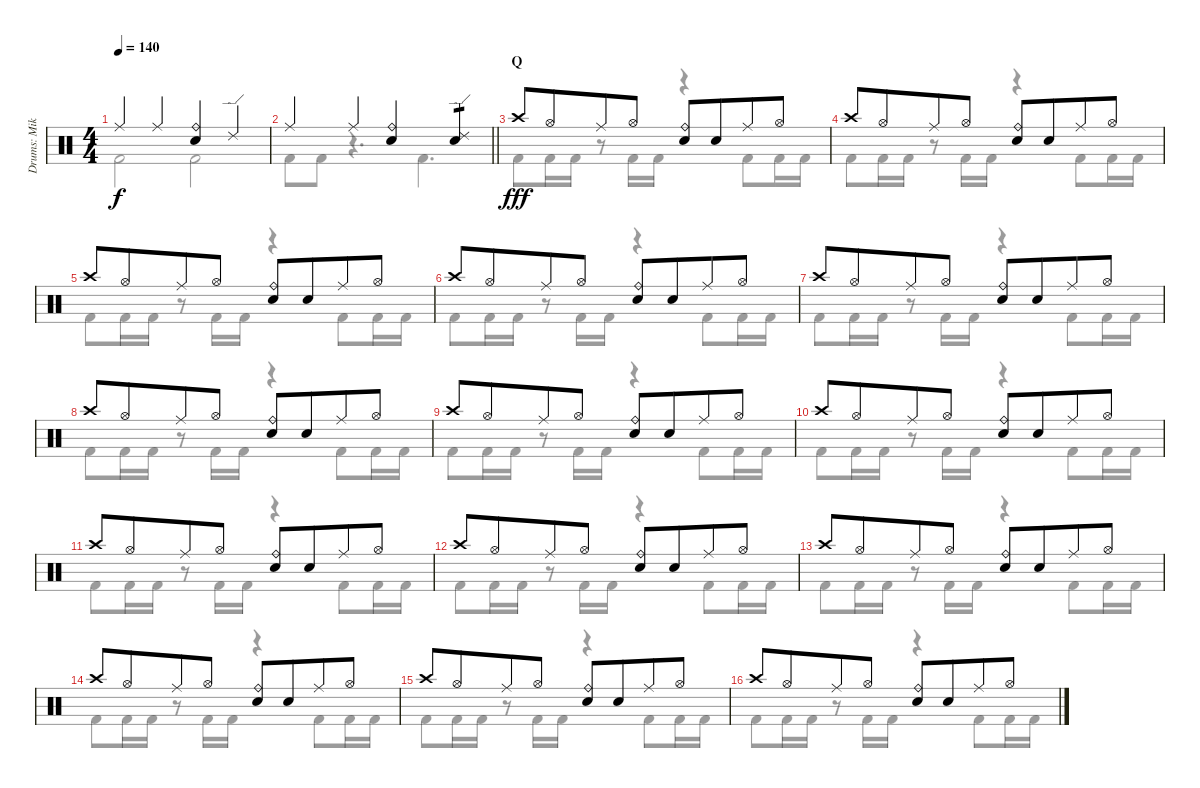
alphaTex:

\track ("Drums: Mike" "Drums: Mik") {instrument percussion}
\staff {score}
\articulation defaults
\voice
\ts (4 4)
\tempo 140
\clef neutral
\ks c "Ride (middle)".4{dy f} "Ride (middle)".4
("Ride (bell)" "Snare (hit) 2").4 "Ride (edge) 2".4 |
\barLineRight lightlight "Ride (middle)".4 "Ride (middle)".4
("Ride (bell)" "Snare (hit) 2").4 ("Ride (edge) 2" "Snare (hit) 2").4{tp 1} |
\section ("" "Q")
"Crash high (hit)".8{dy fff} "Hi-Hat (open)".8{beam merge} "Ride (middle)".8 "Hi-Hat (open)".8 ("Ride (bell)" "Snare (hit) 2").8 "Snare (hit) 2".8{beam merge} "Ride (middle)".8 "Hi-Hat (open)".8 |
"Crash high (hit)".8 "Hi-Hat (open)".8{beam merge} "Ride (middle)".8 "Hi-Hat (open)".8 ("Ride (bell)" "Snare (hit) 2").8 "Snare (hit) 2".8{beam merge} "Ride (middle)".8 "Hi-Hat (open)".8 |
"Crash high (hit)".8 "Hi-Hat (open)".8{beam merge} "Ride (middle)".8 "Hi-Hat (open)".8 ("Ride (bell)" "Snare (hit) 2").8 "Snare (hit) 2".8{beam merge} "Ride (middle)".8 "Hi-Hat (open)".8 |
"Crash high (hit)".8 "Hi-Hat (open)".8{beam merge} "Ride (middle)".8 "Hi-Hat (open)".8 ("Ride (bell)" "Snare (hit) 2").8 "Snare (hit) 2".8{beam merge} "Ride (middle)".8 "Hi-Hat (open)".8 |
"Crash high (hit)".8 "Hi-Hat (open)".8{beam merge} "Ride (middle)".8 "Hi-Hat (open)".8 ("Ride (bell)" "Snare (hit) 2").8 "Snare (hit) 2".8{beam merge} "Ride (middle)".8 "Hi-Hat (open)".8 |
"Crash high (hit)".8 "Hi-Hat (open)".8{beam merge} "Ride (middle)".8 "Hi-Hat (open)".8 ("Ride (bell)" "Snare (hit) 2").8 "Snare (hit) 2".8{beam merge} "Ride (middle)".8 "Hi-Hat (open)".8 |
"Crash high (hit)".8 "Hi-Hat (open)".8{beam merge} "Ride (middle)".8 "Hi-Hat (open)".8 ("Ride (bell)" "Snare (hit) 2").8 "Snare (hit) 2".8{beam merge} "Ride (middle)".8 "Hi-Hat (open)".8 |
"Crash high (hit)".8 "Hi-Hat (open)".8{beam merge} "Ride (middle)".8 "Hi-Hat (open)".8 ("Ride (bell)" "Snare (hit) 2").8 "Snare (hit) 2".8{beam merge} "Ride (middle)".8 "Hi-Hat (open)".8 |
"Crash high (hit)".8 "Hi-Hat (open)".8{beam merge} "Ride (middle)".8 "Hi-Hat (open)".8 ("Ride (bell)" "Snare (hit) 2").8 "Snare (hit) 2".8{beam merge} "Ride (middle)".8 "Hi-Hat (open)".8 |
"Crash high (hit)".8 "Hi-Hat (open)".8{beam merge} "Ride (middle)".8 "Hi-Hat (open)".8 ("Ride (bell)" "Snare (hit) 2").8 "Snare (hit) 2".8{beam merge} "Ride (middle)".8 "Hi-Hat (open)".8 |
"Crash high (hit)".8 "Hi-Hat (open)".8{beam merge} "Ride (middle)".8 "Hi-Hat (open)".8 ("Ride (bell)" "Snare (hit) 2").8 "Snare (hit) 2".8{beam merge} "Ride (middle)".8 "Hi-Hat (open)".8 |
"Crash high (hit)".8 "Hi-Hat (open)".8{beam merge} "Ride (middle)".8 "Hi-Hat (open)".8 ("Ride (bell)" "Snare (hit) 2").8 "Snare (hit) 2".8{beam merge} "Ride (middle)".8 "Hi-Hat (open)".8 |
"Crash high (hit)".8 "Hi-Hat (open)".8{beam merge} "Ride (middle)".8 "Hi-Hat (open)".8 ("Ride (bell)" "Snare (hit) 2").8 "Snare (hit) 2".8{beam merge} "Ride (middle)".8 "Hi-Hat (open)".8 |
"Crash high (hit)".8 "Hi-Hat (open)".8{beam merge} "Ride (middle)".8 "Hi-Hat (open)".8 ("Ride (bell)" "Snare (hit) 2").8 "Snare (hit) 2".8{beam merge} "Ride (middle)".8 "Hi-Hat (open)".8
\voice
\clef neutral
\ottava regular
\simile none
\ks c "Kick (hit) 2".2{dy f} "Kick (hit) 2".2
|
\barLineRight lightlight "Kick (hit) 2".8 "Kick (hit) 2".8
r.4{d} "Kick (hit) 2".4{d} |
"Kick (hit) 2".8{dy fff} "Kick (hit) 2".16 "Kick (hit) 2".16 r.8 "Kick (hit) 2".16 "Kick (hit) 2".16 r.4 "Kick (hit) 2".8 "Kick (hit) 2".16 "Kick (hit) 2".16 |
"Kick (hit) 2".8 "Kick (hit) 2".16 "Kick (hit) 2".16 r.8 "Kick (hit) 2".16 "Kick (hit) 2".16 r.4 "Kick (hit) 2".8 "Kick (hit) 2".16 "Kick (hit) 2".16 |
"Kick (hit) 2".8 "Kick (hit) 2".16 "Kick (hit) 2".16 r.8 "Kick (hit) 2".16 "Kick (hit) 2".16 r.4 "Kick (hit) 2".8 "Kick (hit) 2".16 "Kick (hit) 2".16 |
"Kick (hit) 2".8 "Kick (hit) 2".16 "Kick (hit) 2".16 r.8 "Kick (hit) 2".16 "Kick (hit) 2".16 r.4 "Kick (hit) 2".8 "Kick (hit) 2".16 "Kick (hit) 2".16 |
"Kick (hit) 2".8 "Kick (hit) 2".16 "Kick (hit) 2".16 r.8 "Kick (hit) 2".16 "Kick (hit) 2".16 r.4 "Kick (hit) 2".8 "Kick (hit) 2".16 "Kick (hit) 2".16 |
"Kick (hit) 2".8 "Kick (hit) 2".16 "Kick (hit) 2".16 r.8 "Kick (hit) 2".16 "Kick (hit) 2".16 r.4 "Kick (hit) 2".8 "Kick (hit) 2".16 "Kick (hit) 2".16 |
"Kick (hit) 2".8 "Kick (hit) 2".16 "Kick (hit) 2".16 r.8 "Kick (hit) 2".16 "Kick (hit) 2".16 r.4 "Kick (hit) 2".8 "Kick (hit) 2".16 "Kick (hit) 2".16 |
"Kick (hit) 2".8 "Kick (hit) 2".16 "Kick (hit) 2".16 r.8 "Kick (hit) 2".16 "Kick (hit) 2".16 r.4 "Kick (hit) 2".8 "Kick (hit) 2".16 "Kick (hit) 2".16 |
"Kick (hit) 2".8 "Kick (hit) 2".16 "Kick (hit) 2".16 r.8 "Kick (hit) 2".16 "Kick (hit) 2".16 r.4 "Kick (hit) 2".8 "Kick (hit) 2".16 "Kick (hit) 2".16 |
"Kick (hit) 2".8 "Kick (hit) 2".16 "Kick (hit) 2".16 r.8 "Kick (hit) 2".16 "Kick (hit) 2".16 r.4 "Kick (hit) 2".8 "Kick (hit) 2".16 "Kick (hit) 2".16 |
"Kick (hit) 2".8 "Kick (hit) 2".16 "Kick (hit) 2".16 r.8 "Kick (hit) 2".16 "Kick (hit) 2".16 r.4 "Kick (hit) 2".8 "Kick (hit) 2".16 "Kick (hit) 2".16 |
"Kick (hit) 2".8 "Kick (hit) 2".16 "Kick (hit) 2".16 r.8 "Kick (hit) 2".16 "Kick (hit) 2".16 r.4 "Kick (hit) 2".8 "Kick (hit) 2".16 "Kick (hit) 2".16 |
"Kick (hit) 2".8 "Kick (hit) 2".16 "Kick (hit) 2".16 r.8 "Kick (hit) 2".16 "Kick (hit) 2".16 r.4 "Kick (hit) 2".8 "Kick (hit) 2".16 "Kick (hit) 2".16 |
"Kick (hit) 2".8 "Kick (hit) 2".16 "Kick (hit) 2".16 r.8 "Kick (hit) 2".16 "Kick (hit) 2".16 r.4 "Kick (hit) 2".8 "Kick (hit) 2".16 "Kick (hit) 2".16
